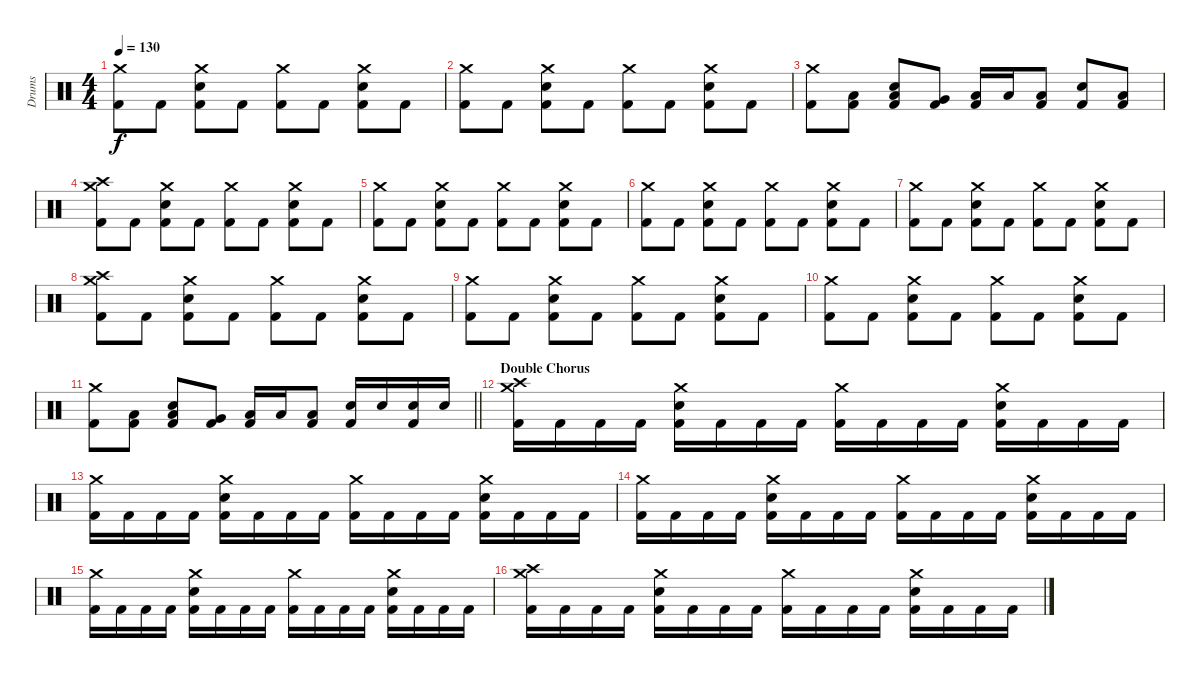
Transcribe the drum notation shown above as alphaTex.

\track ("Drums" "Drums") {instrument percussion}
\staff {score}
\articulation defaults
\ts (4 4)
\tempo 130
\clef neutral
\ks c
("Crash medium (hit)" "Kick (hit) 2").8{dy f} "Kick (hit) 2".8 ("Crash medium (hit)" "Snare (hit) 2" "Kick (hit) 2").8 "Kick (hit) 2".8 ("Crash medium (hit)" "Kick (hit) 2").8 "Kick (hit) 2".8 ("Crash medium (hit)" "Snare (hit) 2" "Kick (hit) 2").8 "Kick (hit) 2".8 |
("Crash medium (hit)" "Kick (hit) 2").8 "Kick (hit) 2".8 ("Crash medium (hit)" "Snare (hit) 2" "Kick (hit) 2").8 "Kick (hit) 2".8 ("Crash medium (hit)" "Kick (hit) 2").8 "Kick (hit) 2".8 ("Crash medium (hit)" "Snare (hit) 2" "Kick (hit) 2").8 "Kick (hit) 2".8 |
("Crash medium (hit)" "Kick (hit) 2").8 ("Low Floor Tom (hit)" "Kick (hit) 2").8 ("Low Floor Tom (hit)" "Snare (hit) 2" "Kick (hit) 2").8 ("Very Low Tom (hit)" "Kick (hit) 2").8 ("Low Floor Tom (hit)" "Kick (hit) 2").16 "Low Floor Tom (hit)".16 ("Low Floor Tom (hit)" "Kick (hit) 2").8 ("Snare (hit) 2" "Kick (hit) 2").8 ("Low Tom (hit)" "Kick (hit) 2").8 |
("Crash medium (hit)" "Crash high (hit)" "Kick (hit) 2").8 "Kick (hit) 2".8 ("Crash medium (hit)" "Snare (hit) 2" "Kick (hit) 2").8 "Kick (hit) 2".8 ("Crash medium (hit)" "Kick (hit) 2").8 "Kick (hit) 2".8 ("Crash medium (hit)" "Snare (hit) 2" "Kick (hit) 2").8 "Kick (hit) 2".8 |
("Crash medium (hit)" "Kick (hit) 2").8 "Kick (hit) 2".8 ("Crash medium (hit)" "Snare (hit) 2" "Kick (hit) 2").8 "Kick (hit) 2".8 ("Crash medium (hit)" "Kick (hit) 2").8 "Kick (hit) 2".8 ("Crash medium (hit)" "Snare (hit) 2" "Kick (hit) 2").8 "Kick (hit) 2".8 |
("Crash medium (hit)" "Kick (hit) 2").8 "Kick (hit) 2".8 ("Crash medium (hit)" "Snare (hit) 2" "Kick (hit) 2").8 "Kick (hit) 2".8 ("Crash medium (hit)" "Kick (hit) 2").8 "Kick (hit) 2".8 ("Crash medium (hit)" "Snare (hit) 2" "Kick (hit) 2").8 "Kick (hit) 2".8 |
("Crash medium (hit)" "Kick (hit) 2").8 "Kick (hit) 2".8 ("Crash medium (hit)" "Snare (hit) 2" "Kick (hit) 2").8 "Kick (hit) 2".8 ("Crash medium (hit)" "Kick (hit) 2").8 "Kick (hit) 2".8 ("Crash medium (hit)" "Snare (hit) 2" "Kick (hit) 2").8 "Kick (hit) 2".8 |
("Crash medium (hit)" "Crash high (hit)" "Kick (hit) 2").8 "Kick (hit) 2".8 ("Crash medium (hit)" "Snare (hit) 2" "Kick (hit) 2").8 "Kick (hit) 2".8 ("Crash medium (hit)" "Kick (hit) 2").8 "Kick (hit) 2".8 ("Crash medium (hit)" "Snare (hit) 2" "Kick (hit) 2").8 "Kick (hit) 2".8 |
("Crash medium (hit)" "Kick (hit) 2").8 "Kick (hit) 2".8 ("Crash medium (hit)" "Snare (hit) 2" "Kick (hit) 2").8 "Kick (hit) 2".8 ("Crash medium (hit)" "Kick (hit) 2").8 "Kick (hit) 2".8 ("Crash medium (hit)" "Snare (hit) 2" "Kick (hit) 2").8 "Kick (hit) 2".8 |
("Crash medium (hit)" "Kick (hit) 2").8 "Kick (hit) 2".8 ("Crash medium (hit)" "Snare (hit) 2" "Kick (hit) 2").8 "Kick (hit) 2".8 ("Crash medium (hit)" "Kick (hit) 2").8 "Kick (hit) 2".8 ("Crash medium (hit)" "Snare (hit) 2" "Kick (hit) 2").8 "Kick (hit) 2".8 |
\barLineRight lightlight
("Crash medium (hit)" "Kick (hit) 2").8 ("Low Floor Tom (hit)" "Kick (hit) 2").8 ("Low Floor Tom (hit)" "Snare (hit) 2" "Kick (hit) 2").8 ("Very Low Tom (hit)" "Kick (hit) 2").8 ("Low Floor Tom (hit)" "Kick (hit) 2").16 "Low Floor Tom (hit)".16 ("Low Floor Tom (hit)" "Kick (hit) 2").8 ("Snare (hit) 2" "Kick (hit) 2").16 "Snare (hit) 2".16 ("Snare (hit) 2" "Kick (hit) 2").16 "Snare (hit) 2".16 |
\section ("" "Double Chorus")
("Crash medium (hit)" "Crash high (hit)" "Kick (hit) 2").16 "Kick (hit) 2".16 "Kick (hit) 2".16 "Kick (hit) 2".16 ("Crash medium (hit)" "Snare (hit) 2" "Kick (hit) 2").16 "Kick (hit) 2".16 "Kick (hit) 2".16 "Kick (hit) 2".16 ("Crash medium (hit)" "Kick (hit) 2").16 "Kick (hit) 2".16 "Kick (hit) 2".16 "Kick (hit) 2".16 ("Crash medium (hit)" "Snare (hit) 2" "Kick (hit) 2").16 "Kick (hit) 2".16 "Kick (hit) 2".16 "Kick (hit) 2".16 |
("Crash medium (hit)" "Kick (hit) 2").16 "Kick (hit) 2".16 "Kick (hit) 2".16 "Kick (hit) 2".16 ("Crash medium (hit)" "Snare (hit) 2" "Kick (hit) 2").16 "Kick (hit) 2".16 "Kick (hit) 2".16 "Kick (hit) 2".16 ("Crash medium (hit)" "Kick (hit) 2").16 "Kick (hit) 2".16 "Kick (hit) 2".16 "Kick (hit) 2".16 ("Crash medium (hit)" "Snare (hit) 2" "Kick (hit) 2").16 "Kick (hit) 2".16 "Kick (hit) 2".16 "Kick (hit) 2".16 |
("Crash medium (hit)" "Kick (hit) 2").16 "Kick (hit) 2".16 "Kick (hit) 2".16 "Kick (hit) 2".16 ("Crash medium (hit)" "Snare (hit) 2" "Kick (hit) 2").16 "Kick (hit) 2".16 "Kick (hit) 2".16 "Kick (hit) 2".16 ("Crash medium (hit)" "Kick (hit) 2").16 "Kick (hit) 2".16 "Kick (hit) 2".16 "Kick (hit) 2".16 ("Crash medium (hit)" "Snare (hit) 2" "Kick (hit) 2").16 "Kick (hit) 2".16 "Kick (hit) 2".16 "Kick (hit) 2".16 |
("Crash medium (hit)" "Kick (hit) 2").16 "Kick (hit) 2".16 "Kick (hit) 2".16 "Kick (hit) 2".16 ("Crash medium (hit)" "Snare (hit) 2" "Kick (hit) 2").16 "Kick (hit) 2".16 "Kick (hit) 2".16 "Kick (hit) 2".16 ("Crash medium (hit)" "Kick (hit) 2").16 "Kick (hit) 2".16 "Kick (hit) 2".16 "Kick (hit) 2".16 ("Crash medium (hit)" "Snare (hit) 2" "Kick (hit) 2").16 "Kick (hit) 2".16 "Kick (hit) 2".16 "Kick (hit) 2".16 |
("Crash medium (hit)" "Crash high (hit)" "Kick (hit) 2").16 "Kick (hit) 2".16 "Kick (hit) 2".16 "Kick (hit) 2".16 ("Crash medium (hit)" "Snare (hit) 2" "Kick (hit) 2").16 "Kick (hit) 2".16 "Kick (hit) 2".16 "Kick (hit) 2".16 ("Crash medium (hit)" "Kick (hit) 2").16 "Kick (hit) 2".16 "Kick (hit) 2".16 "Kick (hit) 2".16 ("Crash medium (hit)" "Snare (hit) 2" "Kick (hit) 2").16 "Kick (hit) 2".16 "Kick (hit) 2".16 "Kick (hit) 2".16
